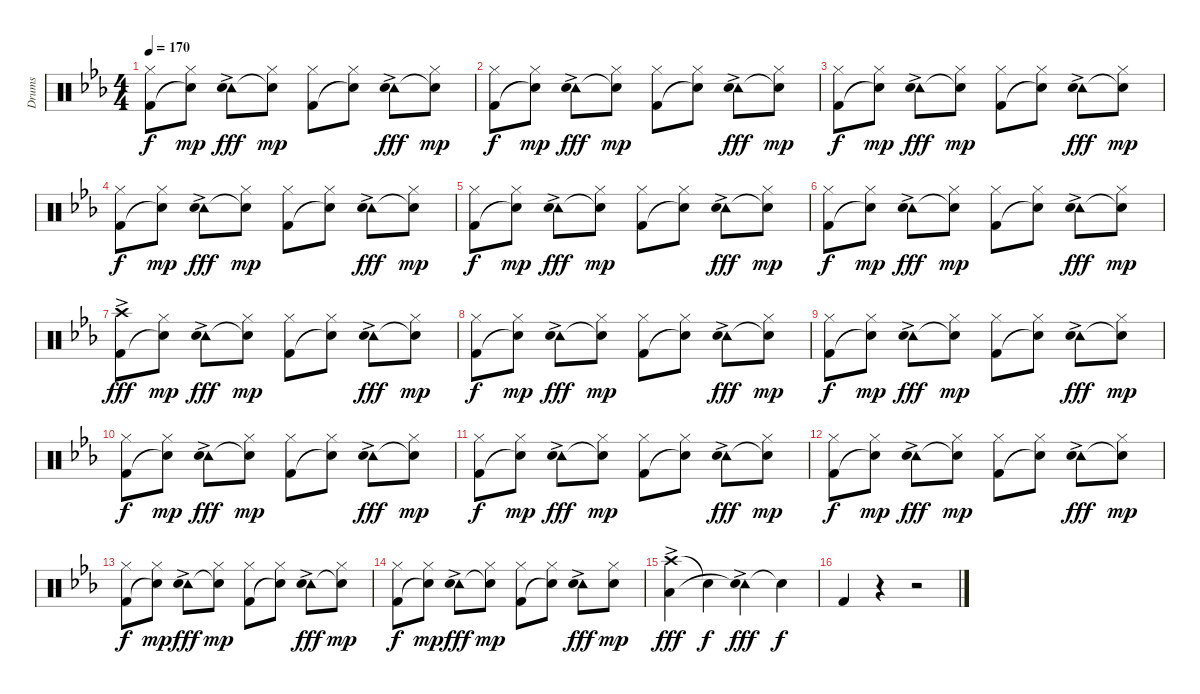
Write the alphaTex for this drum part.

\track ("Drums" "Drums") {instrument percussion}
\staff {score}
\articulation defaults
\ts (4 4)
\tempo 170
\clef neutral
\ks cminor
("Hi-Hat (closed)" "Kick (hit) 2").8{dy f} ("Hi-Hat (closed)" "Snare (hit)"{t}).8{dy mp} ("Tambourine (hit)"{ac} "Hand Clap (hit)").8{dy fff} ("Hi-Hat (closed)" "Snare (hit)"{t}).8{dy mp} ("Hi-Hat (closed)" "Kick (hit) 2").8 ("Hi-Hat (closed)" "Snare (hit)"{t}).8 ("Tambourine (hit)"{ac} "Hand Clap (hit)").8{dy fff} ("Hi-Hat (closed)" "Snare (hit)"{t}).8{dy mp} |
("Hi-Hat (closed)" "Kick (hit) 2").8{dy f} ("Hi-Hat (closed)" "Snare (hit)"{t}).8{dy mp} ("Tambourine (hit)"{ac} "Hand Clap (hit)").8{dy fff} ("Hi-Hat (closed)" "Snare (hit)"{t}).8{dy mp} ("Hi-Hat (closed)" "Kick (hit) 2").8 ("Hi-Hat (closed)" "Snare (hit)"{t}).8 ("Tambourine (hit)"{ac} "Hand Clap (hit)").8{dy fff} ("Hi-Hat (closed)" "Snare (hit)"{t}).8{dy mp} |
("Hi-Hat (closed)" "Kick (hit) 2").8{dy f} ("Hi-Hat (closed)" "Snare (hit)"{t}).8{dy mp} ("Tambourine (hit)"{ac} "Hand Clap (hit)").8{dy fff} ("Hi-Hat (closed)" "Snare (hit)"{t}).8{dy mp} ("Hi-Hat (closed)" "Kick (hit) 2").8 ("Hi-Hat (closed)" "Snare (hit)"{t}).8 ("Tambourine (hit)"{ac} "Hand Clap (hit)").8{dy fff} ("Hi-Hat (closed)" "Snare (hit)"{t}).8{dy mp} |
("Hi-Hat (closed)" "Kick (hit) 2").8{dy f} ("Hi-Hat (closed)" "Snare (hit)"{t}).8{dy mp} ("Tambourine (hit)"{ac} "Hand Clap (hit)").8{dy fff} ("Hi-Hat (closed)" "Snare (hit)"{t}).8{dy mp} ("Hi-Hat (closed)" "Kick (hit) 2").8 ("Hi-Hat (closed)" "Snare (hit)"{t}).8 ("Tambourine (hit)"{ac} "Hand Clap (hit)").8{dy fff} ("Hi-Hat (closed)" "Snare (hit)"{t}).8{dy mp} |
("Hi-Hat (closed)" "Kick (hit) 2").8{dy f} ("Hi-Hat (closed)" "Snare (hit)"{t}).8{dy mp} ("Tambourine (hit)"{ac} "Hand Clap (hit)").8{dy fff} ("Hi-Hat (closed)" "Snare (hit)"{t}).8{dy mp} ("Hi-Hat (closed)" "Kick (hit) 2").8 ("Hi-Hat (closed)" "Snare (hit)"{t}).8 ("Tambourine (hit)"{ac} "Hand Clap (hit)").8{dy fff} ("Hi-Hat (closed)" "Snare (hit)"{t}).8{dy mp} |
("Hi-Hat (closed)" "Kick (hit) 2").8{dy f} ("Hi-Hat (closed)" "Snare (hit)"{t}).8{dy mp} ("Tambourine (hit)"{ac} "Hand Clap (hit)").8{dy fff} ("Hi-Hat (closed)" "Snare (hit)"{t}).8{dy mp} ("Hi-Hat (closed)" "Kick (hit) 2").8 ("Hi-Hat (closed)" "Snare (hit)"{t}).8 ("Tambourine (hit)"{ac} "Hand Clap (hit)").8{dy fff} ("Hi-Hat (closed)" "Snare (hit)"{t}).8{dy mp} |
("Crash high (hit)"{ac} "Kick (hit) 2").8{dy fff} ("Hi-Hat (closed)" "Snare (hit)"{t}).8{dy mp} ("Tambourine (hit)"{ac} "Hand Clap (hit)").8{dy fff} ("Hi-Hat (closed)" "Snare (hit)"{t}).8{dy mp} ("Hi-Hat (closed)" "Kick (hit) 2").8 ("Hi-Hat (closed)" "Snare (hit)"{t}).8 ("Tambourine (hit)"{ac} "Hand Clap (hit)").8{dy fff} ("Hi-Hat (closed)" "Snare (hit)"{t}).8{dy mp} |
("Hi-Hat (closed)" "Kick (hit) 2").8{dy f} ("Hi-Hat (closed)" "Snare (hit)"{t}).8{dy mp} ("Tambourine (hit)"{ac} "Hand Clap (hit)").8{dy fff} ("Hi-Hat (closed)" "Snare (hit)"{t}).8{dy mp} ("Hi-Hat (closed)" "Kick (hit) 2").8 ("Hi-Hat (closed)" "Snare (hit)"{t}).8 ("Tambourine (hit)"{ac} "Hand Clap (hit)").8{dy fff} ("Hi-Hat (closed)" "Snare (hit)"{t}).8{dy mp} |
("Hi-Hat (closed)" "Kick (hit) 2").8{dy f} ("Hi-Hat (closed)" "Snare (hit)"{t}).8{dy mp} ("Tambourine (hit)"{ac} "Hand Clap (hit)").8{dy fff} ("Hi-Hat (closed)" "Snare (hit)"{t}).8{dy mp} ("Hi-Hat (closed)" "Kick (hit) 2").8 ("Hi-Hat (closed)" "Snare (hit)"{t}).8 ("Tambourine (hit)"{ac} "Hand Clap (hit)").8{dy fff} ("Hi-Hat (closed)" "Snare (hit)"{t}).8{dy mp} |
("Hi-Hat (closed)" "Kick (hit) 2").8{dy f} ("Hi-Hat (closed)" "Snare (hit)"{t}).8{dy mp} ("Tambourine (hit)"{ac} "Hand Clap (hit)").8{dy fff} ("Hi-Hat (closed)" "Snare (hit)"{t}).8{dy mp} ("Hi-Hat (closed)" "Kick (hit) 2").8 ("Hi-Hat (closed)" "Snare (hit)"{t}).8 ("Tambourine (hit)"{ac} "Hand Clap (hit)").8{dy fff} ("Hi-Hat (closed)" "Snare (hit)"{t}).8{dy mp} |
("Hi-Hat (closed)" "Kick (hit) 2").8{dy f} ("Hi-Hat (closed)" "Snare (hit)"{t}).8{dy mp} ("Tambourine (hit)"{ac} "Hand Clap (hit)").8{dy fff} ("Hi-Hat (closed)" "Snare (hit)"{t}).8{dy mp} ("Hi-Hat (closed)" "Kick (hit) 2").8 ("Hi-Hat (closed)" "Snare (hit)"{t}).8 ("Tambourine (hit)"{ac} "Hand Clap (hit)").8{dy fff} ("Hi-Hat (closed)" "Snare (hit)"{t}).8{dy mp} |
("Hi-Hat (closed)" "Kick (hit) 2").8{dy f} ("Hi-Hat (closed)" "Snare (hit)"{t}).8{dy mp} ("Tambourine (hit)"{ac} "Hand Clap (hit)").8{dy fff} ("Hi-Hat (closed)" "Snare (hit)"{t}).8{dy mp} ("Hi-Hat (closed)" "Kick (hit) 2").8 ("Hi-Hat (closed)" "Snare (hit)"{t}).8 ("Tambourine (hit)"{ac} "Hand Clap (hit)").8{dy fff} ("Hi-Hat (closed)" "Snare (hit)"{t}).8{dy mp} |
("Hi-Hat (closed)" "Kick (hit) 2").8{dy f} ("Hi-Hat (closed)" "Snare (hit)"{t}).8{dy mp} ("Tambourine (hit)"{ac} "Hand Clap (hit)").8{dy fff} ("Hi-Hat (closed)" "Snare (hit)"{t}).8{dy mp} ("Hi-Hat (closed)" "Kick (hit) 2").8 ("Hi-Hat (closed)" "Snare (hit)"{t}).8 ("Tambourine (hit)"{ac} "Hand Clap (hit)").8{dy fff} ("Hi-Hat (closed)" "Snare (hit)"{t}).8{dy mp} |
("Hi-Hat (closed)" "Kick (hit) 2").8{dy f} ("Hi-Hat (closed)" "Snare (hit)"{t}).8{dy mp} ("Tambourine (hit)"{ac} "Hand Clap (hit)").8{dy fff} ("Hi-Hat (closed)" "Snare (hit)"{t}).8{dy mp} ("Hi-Hat (closed)" "Kick (hit) 2").8 ("Hi-Hat (closed)" "Snare (hit)"{t}).8 ("Tambourine (hit)"{ac} "Hand Clap (hit)").8{dy fff} ("Hi-Hat (closed)" "Hand Clap (hit)").8{dy mp} |
("Crash high (hit)"{ac} "Low Floor Tom (hit)").4{dy fff} "Snare (hit)"{t}.4{dy f} ("Tambourine (hit)"{ac} "Snare (hit)"{t}).4{dy fff} "Snare (hit)"{t}.4{dy f} |
"Kick (hit) 2".4 r.4 r.2
